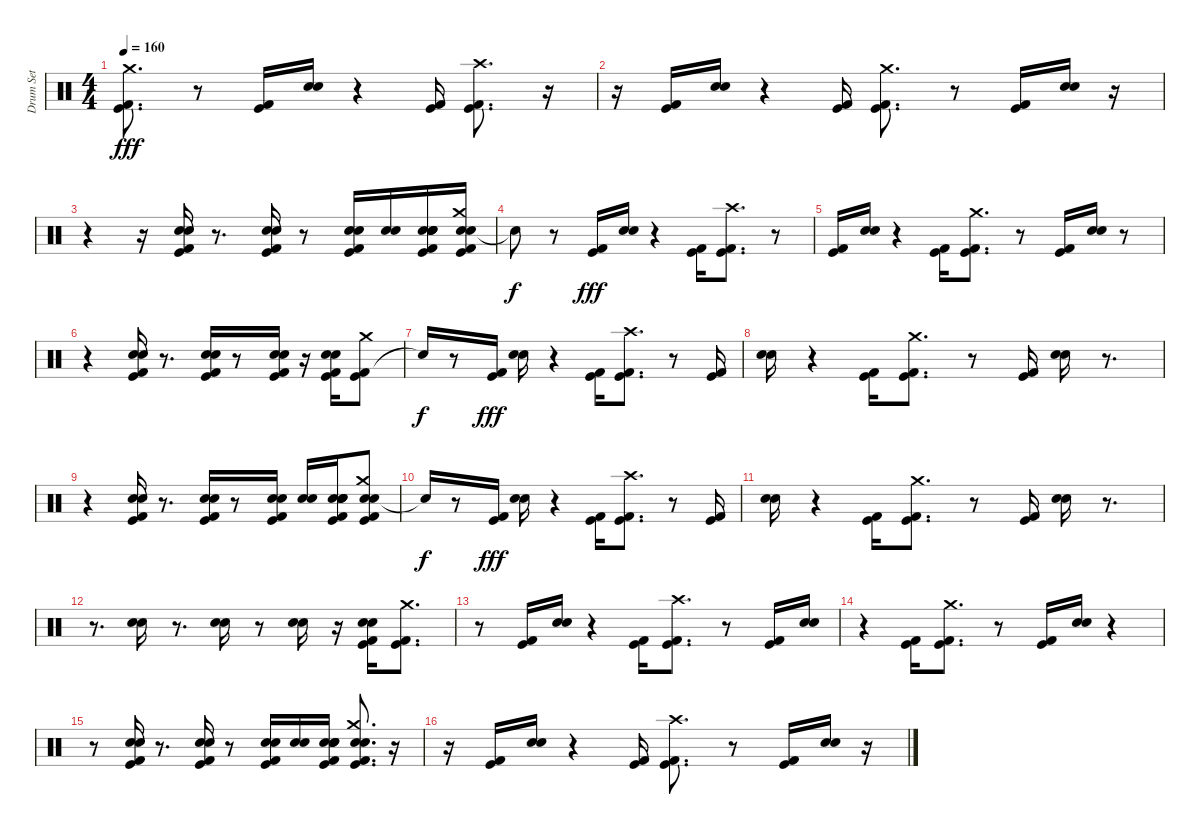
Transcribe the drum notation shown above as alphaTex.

\track ("Drum Set" "Drum Set") {instrument percussion}
\staff {score}
\articulation defaults
\ts (4 4)
\tempo 160
\clef neutral
\ks c
("Kick (hit) 2" "Kick (hit)" "Crash medium (hit)").8{d dy fff} r.8 ("Kick (hit) 2" "Kick (hit)").16 ("Electric Snare (hit)" "Snare (hit) 2").16 r.4 ("Kick (hit) 2" "Kick (hit)").16 ("Kick (hit)" "Kick (hit) 2" "Crash high (hit)").8{d} r.16 |
r.16 ("Kick (hit)" "Kick (hit) 2").16 ("Snare (hit) 2" "Electric Snare (hit)").16 r.4 ("Kick (hit) 2" "Kick (hit)").16 ("Kick (hit)" "Kick (hit) 2" "Crash medium (hit)").8{d} r.8 ("Kick (hit) 2" "Kick (hit)").16 ("Snare (hit) 2" "Electric Snare (hit)").16 r.16 |
r.4 r.16 ("Kick (hit) 2" "Kick (hit)" "Snare (hit) 2" "Electric Snare (hit)").16 r.8{d} ("Kick (hit)" "Kick (hit) 2" "Snare (hit) 2" "Electric Snare (hit)").16 r.8 ("Kick (hit)" "Kick (hit) 2" "Snare (hit) 2" "Electric Snare (hit)").16 ("Electric Snare (hit)" "Snare (hit) 2").16 ("Kick (hit)" "Kick (hit) 2" "Electric Snare (hit)" "Snare (hit) 2" "Snare (hit) 2" "Electric Snare (hit)").16 ("Snare (hit) 2" "Electric Snare (hit)" "Kick (hit) 2" "Kick (hit)" "Crash medium (hit)").16 |
"Snare (hit)"{t}.8{dy f} r.8 ("Kick (hit) 2" "Kick (hit)").16{dy fff} ("Electric Snare (hit)" "Snare (hit) 2").16 r.4 ("Kick (hit) 2" "Kick (hit)").16 ("Kick (hit)" "Kick (hit) 2" "Crash high (hit)").8{d} r.8 |
("Kick (hit)" "Kick (hit) 2").16 ("Snare (hit) 2" "Electric Snare (hit)").16 r.4 ("Kick (hit) 2" "Kick (hit)").16 ("Kick (hit)" "Kick (hit) 2" "Crash medium (hit)").8{d} r.8 ("Kick (hit) 2" "Kick (hit)").16 ("Snare (hit) 2" "Electric Snare (hit)").16 r.8 |
r.4 ("Kick (hit) 2" "Kick (hit)" "Snare (hit) 2" "Electric Snare (hit)").16 r.8{d} ("Kick (hit)" "Kick (hit) 2" "Snare (hit) 2" "Electric Snare (hit)").16 r.8 ("Kick (hit)" "Kick (hit) 2" "Snare (hit) 2" "Electric Snare (hit)").16 r.16 ("Kick (hit) 2" "Kick (hit)" "Electric Snare (hit)" "Snare (hit) 2").16 ("Kick (hit) 2" "Kick (hit)" "Crash medium (hit)").8 |
"Snare (hit)"{t}.16{dy f} r.8 ("Kick (hit) 2" "Kick (hit)").16{dy fff} ("Electric Snare (hit)" "Snare (hit) 2").16 r.4 ("Kick (hit) 2" "Kick (hit)").16 ("Kick (hit)" "Kick (hit) 2" "Crash high (hit)").8{d} r.8 ("Kick (hit)" "Kick (hit) 2").16 |
("Snare (hit) 2" "Electric Snare (hit)").16 r.4 ("Kick (hit) 2" "Kick (hit)").16 ("Kick (hit)" "Kick (hit) 2" "Crash medium (hit)").8{d} r.8 ("Kick (hit) 2" "Kick (hit)").16 ("Snare (hit) 2" "Electric Snare (hit)").16 r.8{d} |
r.4 ("Kick (hit) 2" "Kick (hit)" "Snare (hit) 2" "Electric Snare (hit)").16 r.8{d} ("Kick (hit)" "Kick (hit) 2" "Snare (hit) 2" "Electric Snare (hit)").16 r.8 ("Kick (hit)" "Kick (hit) 2" "Snare (hit) 2" "Electric Snare (hit)").16 ("Snare (hit) 2" "Electric Snare (hit)").16 ("Kick (hit) 2" "Snare (hit) 2" "Electric Snare (hit)" "Kick (hit)" "Snare (hit) 2" "Electric Snare (hit)").16 ("Snare (hit) 2" "Electric Snare (hit)" "Kick (hit) 2" "Kick (hit)" "Crash medium (hit)").8 |
"Snare (hit)"{t}.16{dy f} r.8 ("Kick (hit) 2" "Kick (hit)").16{dy fff} ("Electric Snare (hit)" "Snare (hit) 2").16 r.4 ("Kick (hit) 2" "Kick (hit)").16 ("Kick (hit)" "Kick (hit) 2" "Crash high (hit)").8{d} r.8 ("Kick (hit)" "Kick (hit) 2").16 |
("Snare (hit) 2" "Electric Snare (hit)").16 r.4 ("Kick (hit) 2" "Kick (hit)").16 ("Kick (hit)" "Kick (hit) 2" "Crash medium (hit)").8{d} r.8 ("Kick (hit) 2" "Kick (hit)").16 ("Snare (hit) 2" "Electric Snare (hit)").16 r.8{d} |
r.8{d} ("Snare (hit) 2" "Electric Snare (hit)").16 r.8{d} ("Electric Snare (hit)" "Snare (hit) 2").16 r.8 ("Electric Snare (hit)" "Snare (hit) 2").16 r.16 ("Electric Snare (hit)" "Snare (hit) 2" "Kick (hit) 2" "Kick (hit)").16 ("Kick (hit) 2" "Kick (hit)" "Crash medium (hit)").8{d} |
r.8 ("Kick (hit) 2" "Kick (hit)").16 ("Electric Snare (hit)" "Snare (hit) 2").16 r.4 ("Kick (hit) 2" "Kick (hit)").16 ("Kick (hit)" "Kick (hit) 2" "Crash high (hit)").8{d} r.8 ("Kick (hit)" "Kick (hit) 2").16 ("Snare (hit) 2" "Electric Snare (hit)").16 |
r.4 ("Kick (hit) 2" "Kick (hit)").16 ("Kick (hit)" "Kick (hit) 2" "Crash medium (hit)").8{d} r.8 ("Kick (hit) 2" "Kick (hit)").16 ("Snare (hit) 2" "Electric Snare (hit)").16 r.4 |
r.8 ("Kick (hit) 2" "Kick (hit)" "Snare (hit) 2" "Electric Snare (hit)").16 r.8{d} ("Kick (hit)" "Kick (hit) 2" "Snare (hit) 2" "Electric Snare (hit)").16 r.8 ("Kick (hit)" "Kick (hit) 2" "Snare (hit) 2" "Electric Snare (hit)").16 ("Electric Snare (hit)" "Snare (hit) 2").16 ("Kick (hit)" "Snare (hit) 2" "Kick (hit) 2" "Electric Snare (hit)" "Snare (hit) 2" "Electric Snare (hit)").16 ("Snare (hit) 2" "Electric Snare (hit)" "Kick (hit) 2" "Kick (hit)" "Crash medium (hit)").8{d} r.16 |
r.16 ("Kick (hit) 2" "Kick (hit)").16 ("Electric Snare (hit)" "Snare (hit) 2").16 r.4 ("Kick (hit) 2" "Kick (hit)").16 ("Kick (hit)" "Kick (hit) 2" "Crash high (hit)").8{d} r.8 ("Kick (hit)" "Kick (hit) 2").16 ("Snare (hit) 2" "Electric Snare (hit)").16 r.16
